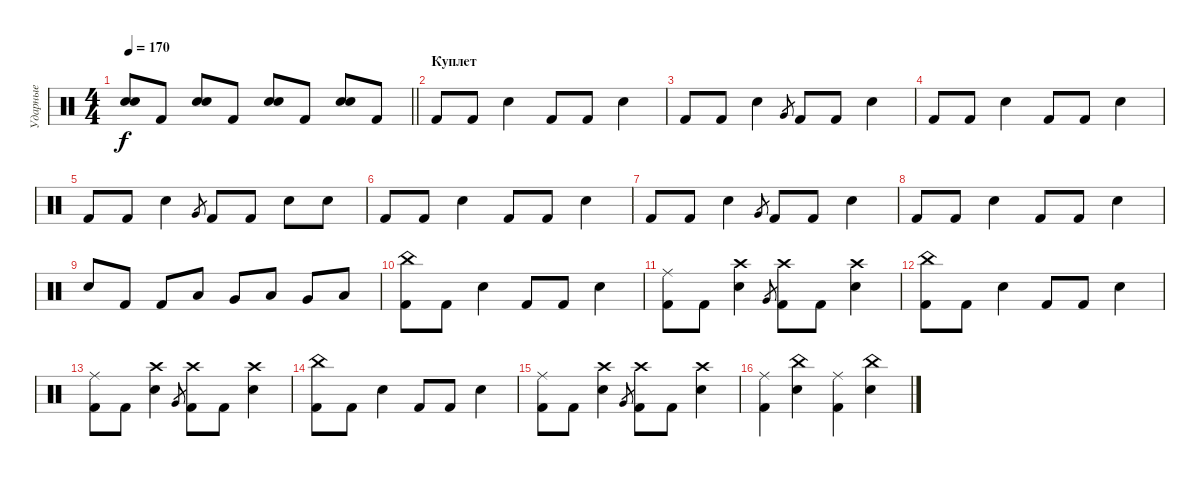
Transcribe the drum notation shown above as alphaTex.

\track ("Ударные" "Ударные") {instrument percussion}
\staff {score}
\articulation defaults
\ts (4 4)
\tempo 170
\clef neutral
\barLineRight lightlight
\ks c
("Electric Snare (hit)" "Electric Snare (hit)").8{bu 120 dy f} "Kick (hit) 2".8 ("Electric Snare (hit)" "Electric Snare (hit)").8{bu 120} "Kick (hit) 2".8 ("Electric Snare (hit)" "Electric Snare (hit)").8{bu 120} "Kick (hit) 2".8 ("Electric Snare (hit)" "Electric Snare (hit)").8{bu 120} "Kick (hit) 2".8 |
\section ("" "Куплет")
"Kick (hit) 2".8 "Kick (hit) 2".8 "Electric Snare (hit)".4 "Kick (hit) 2".8 "Kick (hit) 2".8 "Electric Snare (hit)".4 |
"Kick (hit) 2".8 "Kick (hit) 2".8 "Electric Snare (hit)".4 "Very Low Tom (hit)".8{gr} "Kick (hit) 2".8 "Kick (hit) 2".8 "Electric Snare (hit)".4 |
"Kick (hit) 2".8 "Kick (hit) 2".8 "Electric Snare (hit)".4 "Kick (hit) 2".8 "Kick (hit) 2".8 "Electric Snare (hit)".4 |
"Kick (hit) 2".8 "Kick (hit) 2".8 "Electric Snare (hit)".4 "Very Low Tom (hit)".8{gr} "Kick (hit) 2".8 "Kick (hit) 2".8 "Electric Snare (hit)".8 "Electric Snare (hit)".8 |
"Kick (hit) 2".8 "Kick (hit) 2".8 "Electric Snare (hit)".4 "Kick (hit) 2".8 "Kick (hit) 2".8 "Electric Snare (hit)".4 |
"Kick (hit) 2".8 "Kick (hit) 2".8 "Electric Snare (hit)".4 "Very Low Tom (hit)".8{gr} "Kick (hit) 2".8 "Kick (hit) 2".8 "Electric Snare (hit)".4 |
"Kick (hit) 2".8 "Kick (hit) 2".8 "Electric Snare (hit)".4 "Kick (hit) 2".8 "Kick (hit) 2".8 "Electric Snare (hit)".4 |
"Electric Snare (hit)".8 "Kick (hit) 2".8 "Kick (hit) 2".8 "Low Tom (hit)".8 "Very Low Tom (hit)".8 "Low Floor Tom (hit)".8 "Very Low Tom (hit)".8 "Low Floor Tom (hit)".8 |
("Kick (hit) 2" "China (hit)").8 "Kick (hit) 2".8 "Electric Snare (hit)".4 "Kick (hit) 2".8 "Kick (hit) 2".8 "Electric Snare (hit)".4 |
("Kick (hit) 2" "Ride (middle)").8 "Kick (hit) 2".8 ("Electric Snare (hit)" "Crash high (hit)").4 "Very Low Tom (hit)".8{gr} ("Kick (hit) 2" "Crash high (hit)").8 "Kick (hit) 2".8 ("Electric Snare (hit)" "Crash high (hit)").4 |
("Kick (hit) 2" "China (hit)").8 "Kick (hit) 2".8 "Electric Snare (hit)".4 "Kick (hit) 2".8 "Kick (hit) 2".8 "Electric Snare (hit)".4 |
("Kick (hit) 2" "Ride (middle)").8 "Kick (hit) 2".8 ("Electric Snare (hit)" "Crash high (hit)").4 "Very Low Tom (hit)".8{gr} ("Kick (hit) 2" "Crash high (hit)").8 "Kick (hit) 2".8 ("Electric Snare (hit)" "Crash high (hit)").4 |
("Kick (hit) 2" "China (hit)").8 "Kick (hit) 2".8 "Electric Snare (hit)".4 "Kick (hit) 2".8 "Kick (hit) 2".8 "Electric Snare (hit)".4 |
("Kick (hit) 2" "Ride (middle)").8 "Kick (hit) 2".8 ("Electric Snare (hit)" "Crash high (hit)").4 "Very Low Tom (hit)".8{gr} ("Kick (hit) 2" "Crash high (hit)").8 "Kick (hit) 2".8 ("Electric Snare (hit)" "Crash high (hit)").4 |
("Kick (hit) 2" "Ride (middle)").4 ("Electric Snare (hit)" "China (hit)").4 ("Kick (hit) 2" "Ride (middle)").4 ("Electric Snare (hit)" "China (hit)").4
